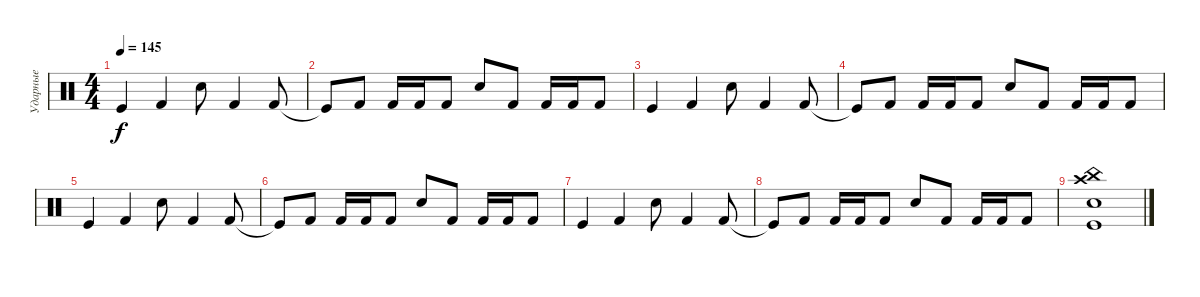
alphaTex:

\track ("Ударные" "Ударные") {instrument percussion}
\staff {score}
\articulation defaults
\ts (4 4)
\tempo 145
\clef neutral
\ks c "Kick (hit)".4{dy f} "Kick (hit) 2".4 "Electric Snare (hit)".8 "Kick (hit) 2".4 "Kick (hit) 2".8
|
"Kick (hit)"{t}.8 "Kick (hit) 2".8 "Kick (hit) 2".16 "Kick (hit) 2".16 "Kick (hit) 2".8 "Electric Snare (hit)".8 "Kick (hit) 2".8 "Kick (hit) 2".16 "Kick (hit) 2".16 "Kick (hit) 2".8 |
"Kick (hit)".4 "Kick (hit) 2".4 "Electric Snare (hit)".8 "Kick (hit) 2".4 "Kick (hit) 2".8 |
"Kick (hit)"{t}.8 "Kick (hit) 2".8 "Kick (hit) 2".16 "Kick (hit) 2".16 "Kick (hit) 2".8 "Electric Snare (hit)".8 "Kick (hit) 2".8 "Kick (hit) 2".16 "Kick (hit) 2".16 "Kick (hit) 2".8 |
"Kick (hit)".4 "Kick (hit) 2".4 "Electric Snare (hit)".8 "Kick (hit) 2".4 "Kick (hit) 2".8 |
"Kick (hit)"{t}.8 "Kick (hit) 2".8 "Kick (hit) 2".16 "Kick (hit) 2".16 "Kick (hit) 2".8 "Electric Snare (hit)".8 "Kick (hit) 2".8 "Kick (hit) 2".16 "Kick (hit) 2".16 "Kick (hit) 2".8 |
"Kick (hit)".4 "Kick (hit) 2".4 "Electric Snare (hit)".8 "Kick (hit) 2".4 "Kick (hit) 2".8 |
"Kick (hit)"{t}.8 "Kick (hit) 2".8 "Kick (hit) 2".16 "Kick (hit) 2".16 "Kick (hit) 2".8 "Electric Snare (hit)".8 "Kick (hit) 2".8 "Kick (hit) 2".16 "Kick (hit) 2".16 "Kick (hit) 2".8 |
("Snare (hit) 2" "Kick (hit)" "Crash high (hit)" "China (hit)").1
